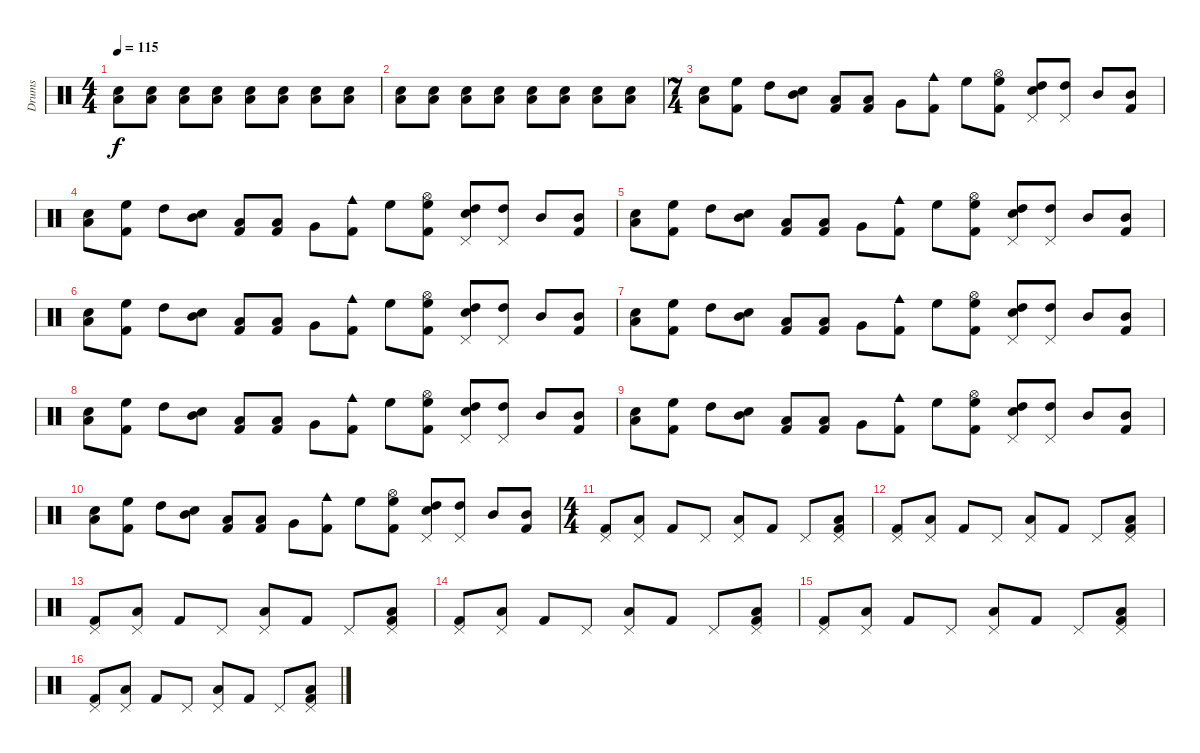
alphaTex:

\track ("Drums" "Drums") {instrument percussion}
\staff {score}
\articulation defaults
\ts (4 4)
\tempo 115
\clef neutral
\ks c
("Low Floor Tom (hit)" "Electric Snare (hit)").8{dy f} ("Low Floor Tom (hit)" "Electric Snare (hit)").8 ("Low Floor Tom (hit)" "Electric Snare (hit)").8 ("Low Floor Tom (hit)" "Electric Snare (hit)").8 ("Low Floor Tom (hit)" "Electric Snare (hit)").8 ("Low Floor Tom (hit)" "Electric Snare (hit)").8 ("Low Floor Tom (hit)" "Electric Snare (hit)").8 ("Low Floor Tom (hit)" "Electric Snare (hit)").8 |
("Low Floor Tom (hit)" "Electric Snare (hit)").8 ("Low Floor Tom (hit)" "Electric Snare (hit)").8 ("Low Floor Tom (hit)" "Electric Snare (hit)").8 ("Low Floor Tom (hit)" "Electric Snare (hit)").8 ("Low Floor Tom (hit)" "Electric Snare (hit)").8 ("Low Floor Tom (hit)" "Electric Snare (hit)").8 ("Low Floor Tom (hit)" "Electric Snare (hit)").8 ("Low Floor Tom (hit)" "Electric Snare (hit)").8 |
\ts (7 4)
("Low Floor Tom (hit)" "Electric Snare (hit)").8 ("High Floor Tom (hit)" "Kick (hit) 2").8 "High Tom (hit)".8 ("Mid Tom (hit)" "Electric Snare (hit)").8 ("Low Tom (hit)" "Kick (hit) 2").8 ("Low Floor Tom (hit)" "Kick (hit) 2").8 "Very Low Tom (hit)".8 ("Cowbell medium (hit)" "Kick (hit) 2").8 "High Floor Tom (hit)".8 ("High Floor Tom (hit)" "Hi-Hat (open)" "Kick (hit) 2").8 ("High Tom (hit)" "Electric Snare (hit)" "Pedal Hi-Hat (hit)").8 ("High Tom (hit)" "Pedal Hi-Hat (hit)").8 "Mid Tom (hit)".8 ("Mid Tom (hit)" "Kick (hit) 2").8 |
("Low Floor Tom (hit)" "Electric Snare (hit)").8 ("High Floor Tom (hit)" "Kick (hit) 2").8 "High Tom (hit)".8 ("Mid Tom (hit)" "Electric Snare (hit)").8 ("Low Tom (hit)" "Kick (hit) 2").8 ("Low Floor Tom (hit)" "Kick (hit) 2").8 "Very Low Tom (hit)".8 ("Cowbell medium (hit)" "Kick (hit) 2").8 "High Floor Tom (hit)".8 ("High Floor Tom (hit)" "Hi-Hat (open)" "Kick (hit) 2").8 ("High Tom (hit)" "Electric Snare (hit)" "Pedal Hi-Hat (hit)").8 ("High Tom (hit)" "Pedal Hi-Hat (hit)").8 "Mid Tom (hit)".8 ("Mid Tom (hit)" "Kick (hit) 2").8 |
("Low Floor Tom (hit)" "Electric Snare (hit)").8 ("High Floor Tom (hit)" "Kick (hit) 2").8 "High Tom (hit)".8 ("Mid Tom (hit)" "Electric Snare (hit)").8 ("Low Tom (hit)" "Kick (hit) 2").8 ("Low Floor Tom (hit)" "Kick (hit) 2").8 "Very Low Tom (hit)".8 ("Cowbell medium (hit)" "Kick (hit) 2").8 "High Floor Tom (hit)".8 ("High Floor Tom (hit)" "Hi-Hat (open)" "Kick (hit) 2").8 ("High Tom (hit)" "Electric Snare (hit)" "Pedal Hi-Hat (hit)").8 ("High Tom (hit)" "Pedal Hi-Hat (hit)").8 "Mid Tom (hit)".8 ("Mid Tom (hit)" "Kick (hit) 2").8 |
("Low Floor Tom (hit)" "Electric Snare (hit)").8 ("High Floor Tom (hit)" "Kick (hit) 2").8 "High Tom (hit)".8 ("Mid Tom (hit)" "Electric Snare (hit)").8 ("Low Tom (hit)" "Kick (hit) 2").8 ("Low Floor Tom (hit)" "Kick (hit) 2").8 "Very Low Tom (hit)".8 ("Cowbell medium (hit)" "Kick (hit) 2").8 "High Floor Tom (hit)".8 ("High Floor Tom (hit)" "Hi-Hat (open)" "Kick (hit) 2").8 ("High Tom (hit)" "Electric Snare (hit)" "Pedal Hi-Hat (hit)").8 ("High Tom (hit)" "Pedal Hi-Hat (hit)").8 "Mid Tom (hit)".8 ("Mid Tom (hit)" "Kick (hit) 2").8 |
("Low Floor Tom (hit)" "Electric Snare (hit)").8 ("High Floor Tom (hit)" "Kick (hit) 2").8 "High Tom (hit)".8 ("Mid Tom (hit)" "Electric Snare (hit)").8 ("Low Tom (hit)" "Kick (hit) 2").8 ("Low Floor Tom (hit)" "Kick (hit) 2").8 "Very Low Tom (hit)".8 ("Cowbell medium (hit)" "Kick (hit) 2").8 "High Floor Tom (hit)".8 ("High Floor Tom (hit)" "Hi-Hat (open)" "Kick (hit) 2").8 ("High Tom (hit)" "Electric Snare (hit)" "Pedal Hi-Hat (hit)").8 ("High Tom (hit)" "Pedal Hi-Hat (hit)").8 "Mid Tom (hit)".8 ("Mid Tom (hit)" "Kick (hit) 2").8 |
("Low Floor Tom (hit)" "Electric Snare (hit)").8 ("High Floor Tom (hit)" "Kick (hit) 2").8 "High Tom (hit)".8 ("Mid Tom (hit)" "Electric Snare (hit)").8 ("Low Tom (hit)" "Kick (hit) 2").8 ("Low Floor Tom (hit)" "Kick (hit) 2").8 "Very Low Tom (hit)".8 ("Cowbell medium (hit)" "Kick (hit) 2").8 "High Floor Tom (hit)".8 ("High Floor Tom (hit)" "Hi-Hat (open)" "Kick (hit) 2").8 ("High Tom (hit)" "Electric Snare (hit)" "Pedal Hi-Hat (hit)").8 ("High Tom (hit)" "Pedal Hi-Hat (hit)").8 "Mid Tom (hit)".8 ("Mid Tom (hit)" "Kick (hit) 2").8 |
("Low Floor Tom (hit)" "Electric Snare (hit)").8 ("High Floor Tom (hit)" "Kick (hit) 2").8 "High Tom (hit)".8 ("Mid Tom (hit)" "Electric Snare (hit)").8 ("Low Tom (hit)" "Kick (hit) 2").8 ("Low Floor Tom (hit)" "Kick (hit) 2").8 "Very Low Tom (hit)".8 ("Cowbell medium (hit)" "Kick (hit) 2").8 "High Floor Tom (hit)".8 ("High Floor Tom (hit)" "Hi-Hat (open)" "Kick (hit) 2").8 ("High Tom (hit)" "Electric Snare (hit)" "Pedal Hi-Hat (hit)").8 ("High Tom (hit)" "Pedal Hi-Hat (hit)").8 "Mid Tom (hit)".8 ("Mid Tom (hit)" "Kick (hit) 2").8 |
("Low Floor Tom (hit)" "Electric Snare (hit)").8 ("High Floor Tom (hit)" "Kick (hit) 2").8 "High Tom (hit)".8 ("Mid Tom (hit)" "Electric Snare (hit)").8 ("Low Tom (hit)" "Kick (hit) 2").8 ("Low Floor Tom (hit)" "Kick (hit) 2").8 "Very Low Tom (hit)".8 ("Cowbell medium (hit)" "Kick (hit) 2").8 "High Floor Tom (hit)".8 ("High Floor Tom (hit)" "Hi-Hat (open)" "Kick (hit) 2").8 ("High Tom (hit)" "Electric Snare (hit)" "Pedal Hi-Hat (hit)").8 ("High Tom (hit)" "Pedal Hi-Hat (hit)").8 "Mid Tom (hit)".8 ("Mid Tom (hit)" "Kick (hit) 2").8 |
\ts (4 4)
("Pedal Hi-Hat (hit)" "Kick (hit) 2").8 ("Pedal Hi-Hat (hit)" "Low Floor Tom (hit)").8 "Kick (hit) 2".8 "Pedal Hi-Hat (hit)".8 ("Pedal Hi-Hat (hit)" "Low Floor Tom (hit)").8 "Kick (hit) 2".8 "Pedal Hi-Hat (hit)".8 ("Pedal Hi-Hat (hit)" "Kick (hit) 2" "Low Floor Tom (hit)").8 |
("Pedal Hi-Hat (hit)" "Kick (hit) 2").8 ("Pedal Hi-Hat (hit)" "Low Floor Tom (hit)").8 "Kick (hit) 2".8 "Pedal Hi-Hat (hit)".8 ("Pedal Hi-Hat (hit)" "Low Floor Tom (hit)").8 "Kick (hit) 2".8 "Pedal Hi-Hat (hit)".8 ("Pedal Hi-Hat (hit)" "Kick (hit) 2" "Low Floor Tom (hit)").8 |
("Pedal Hi-Hat (hit)" "Kick (hit) 2").8 ("Pedal Hi-Hat (hit)" "Low Floor Tom (hit)").8 "Kick (hit) 2".8 "Pedal Hi-Hat (hit)".8 ("Pedal Hi-Hat (hit)" "Low Floor Tom (hit)").8 "Kick (hit) 2".8 "Pedal Hi-Hat (hit)".8 ("Pedal Hi-Hat (hit)" "Kick (hit) 2" "Low Floor Tom (hit)").8 |
("Pedal Hi-Hat (hit)" "Kick (hit) 2").8 ("Pedal Hi-Hat (hit)" "Low Floor Tom (hit)").8 "Kick (hit) 2".8 "Pedal Hi-Hat (hit)".8 ("Pedal Hi-Hat (hit)" "Low Floor Tom (hit)").8 "Kick (hit) 2".8 "Pedal Hi-Hat (hit)".8 ("Pedal Hi-Hat (hit)" "Kick (hit) 2" "Low Floor Tom (hit)").8 |
("Pedal Hi-Hat (hit)" "Kick (hit) 2").8 ("Pedal Hi-Hat (hit)" "Low Floor Tom (hit)").8 "Kick (hit) 2".8 "Pedal Hi-Hat (hit)".8 ("Pedal Hi-Hat (hit)" "Low Floor Tom (hit)").8 "Kick (hit) 2".8 "Pedal Hi-Hat (hit)".8 ("Pedal Hi-Hat (hit)" "Kick (hit) 2" "Low Floor Tom (hit)").8 |
("Pedal Hi-Hat (hit)" "Kick (hit) 2").8 ("Pedal Hi-Hat (hit)" "Low Floor Tom (hit)").8 "Kick (hit) 2".8 "Pedal Hi-Hat (hit)".8 ("Pedal Hi-Hat (hit)" "Low Floor Tom (hit)").8 "Kick (hit) 2".8 "Pedal Hi-Hat (hit)".8 ("Pedal Hi-Hat (hit)" "Kick (hit) 2" "Low Floor Tom (hit)").8
